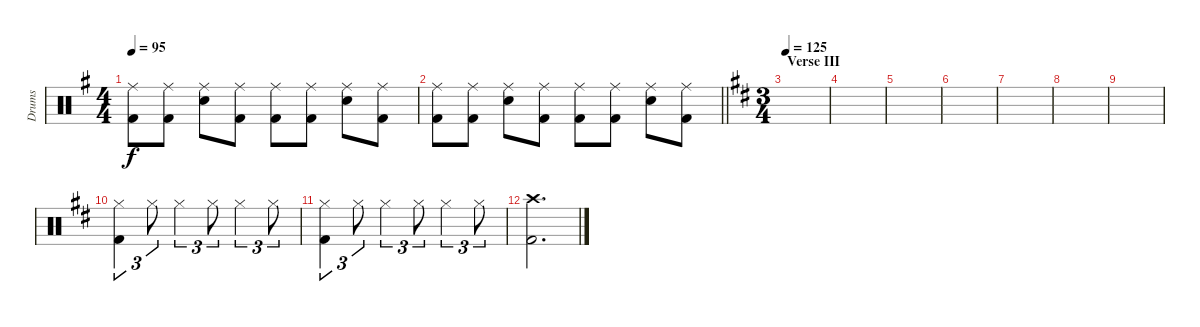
\track ("Drums" "Drums") {instrument percussion}
\staff {score}
\articulation defaults
\ts (4 4)
\tempo 95
\clef neutral
\ks g
("Ride (middle)" "Kick (hit) 2").8{dy f} ("Ride (middle)" "Kick (hit) 2").8 ("Ride (middle)" "Snare (hit) 2").8 ("Ride (middle)" "Kick (hit) 2").8 ("Ride (middle)" "Kick (hit) 2").8 ("Ride (middle)" "Kick (hit) 2").8 ("Ride (middle)" "Snare (hit) 2").8 ("Ride (middle)" "Kick (hit) 2").8 |
\barLineRight lightlight
("Ride (middle)" "Kick (hit) 2").8 ("Ride (middle)" "Kick (hit) 2").8 ("Ride (middle)" "Snare (hit) 2").8 ("Ride (middle)" "Kick (hit) 2").8 ("Ride (middle)" "Kick (hit) 2").8 ("Ride (middle)" "Kick (hit) 2").8 ("Ride (middle)" "Snare (hit) 2").8 ("Ride (middle)" "Kick (hit) 2").8 |
\ts (3 4)
\section ("" "Verse III")
\tempo 125
\ks d
|
|
|
|
|
|
|
("Hi-Hat (closed)" "Kick (hit) 2").4{tu (3 2)} "Hi-Hat (closed)".8{tu (3 2)} "Hi-Hat (closed)".4{tu (3 2)} "Hi-Hat (closed)".8{tu (3 2)} "Hi-Hat (closed)".4{tu (3 2)} "Hi-Hat (closed)".8{tu (3 2)} |
("Hi-Hat (closed)" "Kick (hit) 2").4{tu (3 2)} "Hi-Hat (closed)".8{tu (3 2)} "Hi-Hat (closed)".4{tu (3 2)} "Hi-Hat (closed)".8{tu (3 2)} "Hi-Hat (closed)".4{tu (3 2)} "Hi-Hat (closed)".8{tu (3 2)} |
("Crash high (hit)" "Kick (hit) 2").2{d}
